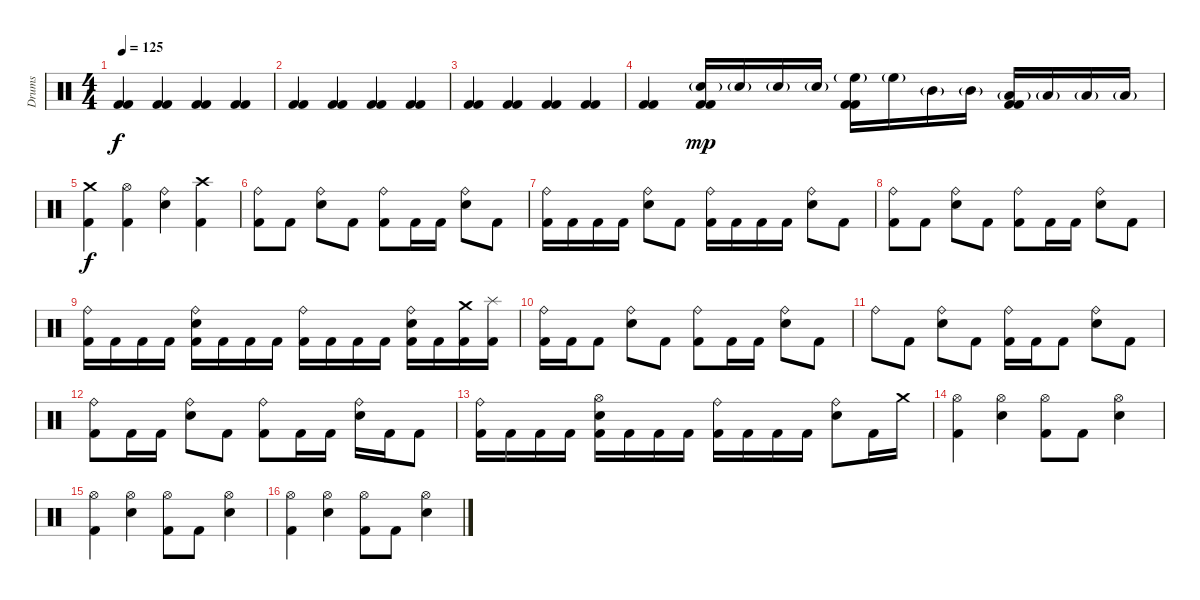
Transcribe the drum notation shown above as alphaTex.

\track ("Drums" "Drums") {instrument percussion}
\staff {score}
\articulation defaults
\ts (4 4)
\tempo 125
\clef neutral
\ks c
("Kick (hit) 2" "Kick (hit) 2").4{dy f} ("Kick (hit) 2" "Kick (hit) 2").4 ("Kick (hit) 2" "Kick (hit) 2").4 ("Kick (hit) 2" "Kick (hit) 2").4 |
("Kick (hit) 2" "Kick (hit) 2").4 ("Kick (hit) 2" "Kick (hit) 2").4 ("Kick (hit) 2" "Kick (hit) 2").4 ("Kick (hit) 2" "Kick (hit) 2").4 |
("Kick (hit) 2" "Kick (hit) 2").4 ("Kick (hit) 2" "Kick (hit) 2").4 ("Kick (hit) 2" "Kick (hit) 2").4 ("Kick (hit) 2" "Kick (hit) 2").4 |
("Kick (hit) 2" "Kick (hit) 2").4 ("Electric Snare (hit)"{g} "Kick (hit) 2" "Kick (hit) 2").16{dy mp} "Electric Snare (hit)"{g}.16 "Electric Snare (hit)"{g}.16 "Electric Snare (hit)"{g}.16 ("High Floor Tom (hit)"{g} "Kick (hit) 2" "Kick (hit) 2").16 "High Floor Tom (hit)"{g}.16 "Mid Tom (hit)"{g}.16 "Mid Tom (hit)"{g}.16 ("Low Tom (hit)"{g} "Kick (hit) 2" "Kick (hit) 2").16 "Low Tom (hit)"{g}.16 "Low Floor Tom (hit)"{g}.16 "Low Floor Tom (hit)"{g}.16 |
("Crash medium (hit)" "Kick (hit) 2").4{dy f} ("Hi-Hat (open)" "Kick (hit) 2").4 ("Ride (bell)" "Electric Snare (hit)").4 ("Crash high (hit)" "Kick (hit) 2").4 |
("Ride (bell)" "Kick (hit) 2").8 "Kick (hit) 2".8 ("Ride (bell)" "Electric Snare (hit)").8 "Kick (hit) 2".8 ("Ride (bell)" "Kick (hit) 2").8 "Kick (hit) 2".16 "Kick (hit) 2".16 ("Ride (bell)" "Electric Snare (hit)").8 "Kick (hit) 2".8 |
("Ride (bell)" "Kick (hit) 2").16 "Kick (hit) 2".16 "Kick (hit) 2".16 "Kick (hit) 2".16 ("Ride (bell)" "Electric Snare (hit)").8 "Kick (hit) 2".8 ("Ride (bell)" "Kick (hit) 2").16 "Kick (hit) 2".16 "Kick (hit) 2".16 "Kick (hit) 2".16 ("Ride (bell)" "Electric Snare (hit)").8 "Kick (hit) 2".8 |
("Ride (bell)" "Kick (hit) 2").8 "Kick (hit) 2".8 ("Ride (bell)" "Electric Snare (hit)").8 "Kick (hit) 2".8 ("Ride (bell)" "Kick (hit) 2").8 "Kick (hit) 2".16 "Kick (hit) 2".16 ("Ride (bell)" "Electric Snare (hit)").8 "Kick (hit) 2".8 |
("Ride (bell)" "Kick (hit) 2").16 "Kick (hit) 2".16 "Kick (hit) 2".16 "Kick (hit) 2".16 ("Ride (bell)" "Electric Snare (hit)" "Kick (hit) 2").16 "Kick (hit) 2".16 "Kick (hit) 2".16 "Kick (hit) 2".16 ("Ride (bell)" "Kick (hit) 2").16 "Kick (hit) 2".16 "Kick (hit) 2".16 "Kick (hit) 2".16 ("Ride (bell)" "Electric Snare (hit)" "Kick (hit) 2").16 "Kick (hit) 2".16 ("Crash medium (hit)" "Kick (hit) 2").16 ("Splash (hit)" "Kick (hit) 2").16 |
("Ride (bell)" "Kick (hit) 2").16 "Kick (hit) 2".16 "Kick (hit) 2".8 ("Ride (bell)" "Electric Snare (hit)").8 "Kick (hit) 2".8 ("Ride (bell)" "Kick (hit) 2").8 "Kick (hit) 2".16 "Kick (hit) 2".16 ("Ride (bell)" "Electric Snare (hit)").8 "Kick (hit) 2".8 |
"Ride (bell)".8 "Kick (hit) 2".8 ("Ride (bell)" "Electric Snare (hit)").8 "Kick (hit) 2".8 ("Ride (bell)" "Kick (hit) 2").16 "Kick (hit) 2".16 "Kick (hit) 2".8 ("Ride (bell)" "Electric Snare (hit)").8 "Kick (hit) 2".8 |
("Ride (bell)" "Kick (hit) 2").8 "Kick (hit) 2".16 "Kick (hit) 2".16 ("Ride (bell)" "Electric Snare (hit)").8 "Kick (hit) 2".8 ("Ride (bell)" "Kick (hit) 2").8 "Kick (hit) 2".16 "Kick (hit) 2".16 ("Ride (bell)" "Electric Snare (hit)").16 "Kick (hit) 2".16 "Kick (hit) 2".8 |
("Ride (bell)" "Kick (hit) 2").16 "Kick (hit) 2".16 "Kick (hit) 2".16 "Kick (hit) 2".16 ("Hi-Hat (open)" "Electric Snare (hit)" "Kick (hit) 2").16 "Kick (hit) 2".16 "Kick (hit) 2".16 "Kick (hit) 2".16 ("Ride (bell)" "Kick (hit) 2").16 "Kick (hit) 2".16 "Kick (hit) 2".16 "Kick (hit) 2".16 ("Ride (bell)" "Electric Snare (hit)").8 "Kick (hit) 2".16 "Crash medium (hit)".16 |
("Hi-Hat (open)" "Kick (hit) 2").4 ("Hi-Hat (open)" "Electric Snare (hit)").4 ("Hi-Hat (open)" "Kick (hit) 2").8 "Kick (hit) 2".8 ("Hi-Hat (open)" "Electric Snare (hit)").4 |
("Hi-Hat (open)" "Kick (hit) 2").4 ("Hi-Hat (open)" "Electric Snare (hit)").4 ("Hi-Hat (open)" "Kick (hit) 2").8 "Kick (hit) 2".8 ("Hi-Hat (open)" "Electric Snare (hit)").4 |
("Hi-Hat (open)" "Kick (hit) 2").4 ("Hi-Hat (open)" "Electric Snare (hit)").4 ("Hi-Hat (open)" "Kick (hit) 2").8 "Kick (hit) 2".8 ("Hi-Hat (open)" "Electric Snare (hit)").4
